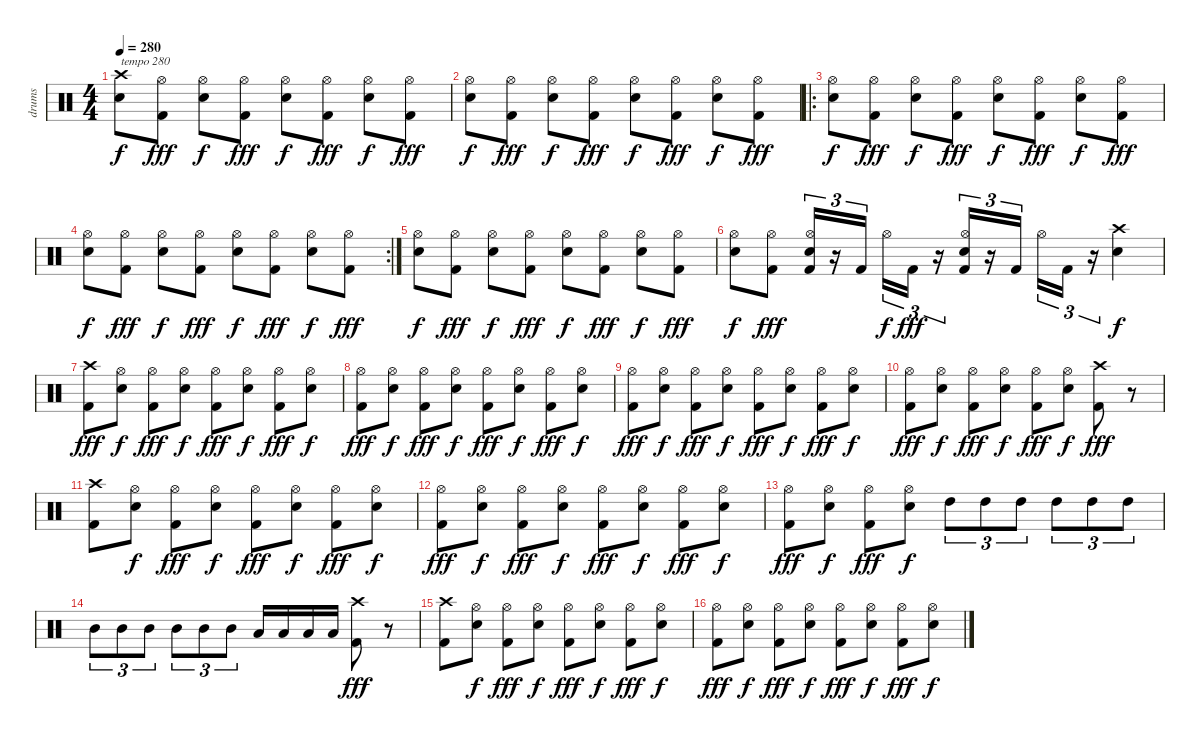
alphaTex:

\track ("drums" "drums") {instrument percussion}
\staff {score}
\articulation defaults
\ts (4 4)
\tempo 280
\clef neutral
\ks c
("Crash high (hit)" "Snare (hit) 2").8{txt "tempo 280" dy f} ("Hi-Hat (open)" "Kick (hit) 2").8{dy fff} ("Hi-Hat (open)" "Snare (hit) 2").8{dy f} ("Hi-Hat (open)" "Kick (hit) 2").8{dy fff} ("Hi-Hat (open)" "Snare (hit) 2").8{dy f} ("Hi-Hat (open)" "Kick (hit) 2").8{dy fff} ("Hi-Hat (open)" "Snare (hit) 2").8{dy f} ("Hi-Hat (open)" "Kick (hit) 2").8{dy fff} |
("Hi-Hat (open)" "Snare (hit) 2").8{dy f} ("Hi-Hat (open)" "Kick (hit) 2").8{dy fff} ("Hi-Hat (open)" "Snare (hit) 2").8{dy f} ("Hi-Hat (open)" "Kick (hit) 2").8{dy fff} ("Hi-Hat (open)" "Snare (hit) 2").8{dy f} ("Hi-Hat (open)" "Kick (hit) 2").8{dy fff} ("Hi-Hat (open)" "Snare (hit) 2").8{dy f} ("Hi-Hat (open)" "Kick (hit) 2").8{dy fff} |
\ro
("Hi-Hat (open)" "Snare (hit) 2").8{dy f} ("Hi-Hat (open)" "Kick (hit) 2").8{dy fff} ("Hi-Hat (open)" "Snare (hit) 2").8{dy f} ("Hi-Hat (open)" "Kick (hit) 2").8{dy fff} ("Hi-Hat (open)" "Snare (hit) 2").8{dy f} ("Hi-Hat (open)" "Kick (hit) 2").8{dy fff} ("Hi-Hat (open)" "Snare (hit) 2").8{dy f} ("Hi-Hat (open)" "Kick (hit) 2").8{dy fff} |
\rc 2
("Hi-Hat (open)" "Snare (hit) 2").8{dy f} ("Hi-Hat (open)" "Kick (hit) 2").8{dy fff} ("Hi-Hat (open)" "Snare (hit) 2").8{dy f} ("Hi-Hat (open)" "Kick (hit) 2").8{dy fff} ("Hi-Hat (open)" "Snare (hit) 2").8{dy f} ("Hi-Hat (open)" "Kick (hit) 2").8{dy fff} ("Hi-Hat (open)" "Snare (hit) 2").8{dy f} ("Hi-Hat (open)" "Kick (hit) 2").8{dy fff} |
("Hi-Hat (open)" "Snare (hit) 2").8{dy f} ("Hi-Hat (open)" "Kick (hit) 2").8{dy fff} ("Hi-Hat (open)" "Snare (hit) 2").8{dy f} ("Hi-Hat (open)" "Kick (hit) 2").8{dy fff} ("Hi-Hat (open)" "Snare (hit) 2").8{dy f} ("Hi-Hat (open)" "Kick (hit) 2").8{dy fff} ("Hi-Hat (open)" "Snare (hit) 2").8{dy f} ("Hi-Hat (open)" "Kick (hit) 2").8{dy fff} |
("Hi-Hat (open)" "Snare (hit) 2").8{dy f} ("Hi-Hat (open)" "Kick (hit) 2").8{dy fff} ("Hi-Hat (open)" "Snare (hit) 2" "Kick (hit) 2").16{tu (3 2)} r.16{tu (3 2)} "Kick (hit) 2".16{tu (3 2)} "Hi-Hat (open)".16{tu (3 2) dy f} "Kick (hit) 2".16{tu (3 2) dy fff} r.16{tu (3 2)} ("Hi-Hat (open)" "Snare (hit) 2" "Kick (hit) 2").16{tu (3 2)} r.16{tu (3 2)} "Kick (hit) 2".16{tu (3 2)} "Hi-Hat (open)".16{tu (3 2)} "Kick (hit) 2".16{tu (3 2)} r.16{tu (3 2)} ("Crash high (hit)" "Snare (hit) 2").4{dy f} |
("Crash high (hit)" "Kick (hit) 2").8{dy fff} ("Hi-Hat (open)" "Snare (hit) 2").8{dy f} ("Hi-Hat (open)" "Kick (hit) 2").8{dy fff} ("Hi-Hat (open)" "Snare (hit) 2").8{dy f} ("Hi-Hat (open)" "Kick (hit) 2").8{dy fff} ("Hi-Hat (open)" "Snare (hit) 2").8{dy f} ("Hi-Hat (open)" "Kick (hit) 2").8{dy fff} ("Hi-Hat (open)" "Snare (hit) 2").8{dy f} |
("Hi-Hat (open)" "Kick (hit) 2").8{dy fff} ("Hi-Hat (open)" "Snare (hit) 2").8{dy f} ("Hi-Hat (open)" "Kick (hit) 2").8{dy fff} ("Hi-Hat (open)" "Snare (hit) 2").8{dy f} ("Hi-Hat (open)" "Kick (hit) 2").8{dy fff} ("Hi-Hat (open)" "Snare (hit) 2").8{dy f} ("Hi-Hat (open)" "Kick (hit) 2").8{dy fff} ("Hi-Hat (open)" "Snare (hit) 2").8{dy f} |
("Hi-Hat (open)" "Kick (hit) 2").8{dy fff} ("Hi-Hat (open)" "Snare (hit) 2").8{dy f} ("Hi-Hat (open)" "Kick (hit) 2").8{dy fff} ("Hi-Hat (open)" "Snare (hit) 2").8{dy f} ("Hi-Hat (open)" "Kick (hit) 2").8{dy fff} ("Hi-Hat (open)" "Snare (hit) 2").8{dy f} ("Hi-Hat (open)" "Kick (hit) 2").8{dy fff} ("Hi-Hat (open)" "Snare (hit) 2").8{dy f} |
("Hi-Hat (open)" "Kick (hit) 2").8{dy fff} ("Hi-Hat (open)" "Snare (hit) 2").8{dy f} ("Hi-Hat (open)" "Kick (hit) 2").8{dy fff} ("Hi-Hat (open)" "Snare (hit) 2").8{dy f} ("Hi-Hat (open)" "Kick (hit) 2").8{dy fff} ("Hi-Hat (open)" "Snare (hit) 2").8{dy f} ("Crash high (hit)" "Kick (hit) 2").8{dy fff} r.8 |
("Crash high (hit)" "Kick (hit) 2").8 ("Hi-Hat (open)" "Snare (hit) 2").8{dy f} ("Hi-Hat (open)" "Kick (hit) 2").8{dy fff} ("Hi-Hat (open)" "Snare (hit) 2").8{dy f} ("Hi-Hat (open)" "Kick (hit) 2").8{dy fff} ("Hi-Hat (open)" "Snare (hit) 2").8{dy f} ("Hi-Hat (open)" "Kick (hit) 2").8{dy fff} ("Hi-Hat (open)" "Snare (hit) 2").8{dy f} |
("Hi-Hat (open)" "Kick (hit) 2").8{dy fff} ("Hi-Hat (open)" "Snare (hit) 2").8{dy f} ("Hi-Hat (open)" "Kick (hit) 2").8{dy fff} ("Hi-Hat (open)" "Snare (hit) 2").8{dy f} ("Hi-Hat (open)" "Kick (hit) 2").8{dy fff} ("Hi-Hat (open)" "Snare (hit) 2").8{dy f} ("Hi-Hat (open)" "Kick (hit) 2").8{dy fff} ("Hi-Hat (open)" "Snare (hit) 2").8{dy f} |
("Hi-Hat (open)" "Kick (hit) 2").8{dy fff} ("Hi-Hat (open)" "Snare (hit) 2").8{dy f} ("Hi-Hat (open)" "Kick (hit) 2").8{dy fff} ("Hi-Hat (open)" "Snare (hit) 2").8{dy f} "High Tom (hit)".8{tu (3 2)} "High Tom (hit)".8{tu (3 2)} "High Tom (hit)".8{tu (3 2)} "High Tom (hit)".8{tu (3 2)} "High Tom (hit)".8{tu (3 2)} "High Tom (hit)".8{tu (3 2)} |
"Mid Tom (hit)".8{tu (3 2)} "Mid Tom (hit)".8{tu (3 2)} "Mid Tom (hit)".8{tu (3 2)} "Mid Tom (hit)".8{tu (3 2)} "Mid Tom (hit)".8{tu (3 2)} "Mid Tom (hit)".8{tu (3 2)} "Low Tom (hit)".16 "Low Tom (hit)".16 "Low Tom (hit)".16 "Low Tom (hit)".16 ("Crash high (hit)" "Kick (hit) 2").8{dy fff} r.8 |
("Crash high (hit)" "Kick (hit) 2").8 ("Hi-Hat (open)" "Snare (hit) 2").8{dy f} ("Hi-Hat (open)" "Kick (hit) 2").8{dy fff} ("Hi-Hat (open)" "Snare (hit) 2").8{dy f} ("Hi-Hat (open)" "Kick (hit) 2").8{dy fff} ("Hi-Hat (open)" "Snare (hit) 2").8{dy f} ("Hi-Hat (open)" "Kick (hit) 2").8{dy fff} ("Hi-Hat (open)" "Snare (hit) 2").8{dy f} |
("Hi-Hat (open)" "Kick (hit) 2").8{dy fff} ("Hi-Hat (open)" "Snare (hit) 2").8{dy f} ("Hi-Hat (open)" "Kick (hit) 2").8{dy fff} ("Hi-Hat (open)" "Snare (hit) 2").8{dy f} ("Hi-Hat (open)" "Kick (hit) 2").8{dy fff} ("Hi-Hat (open)" "Snare (hit) 2").8{dy f} ("Hi-Hat (open)" "Kick (hit) 2").8{dy fff} ("Hi-Hat (open)" "Snare (hit) 2").8{dy f}
